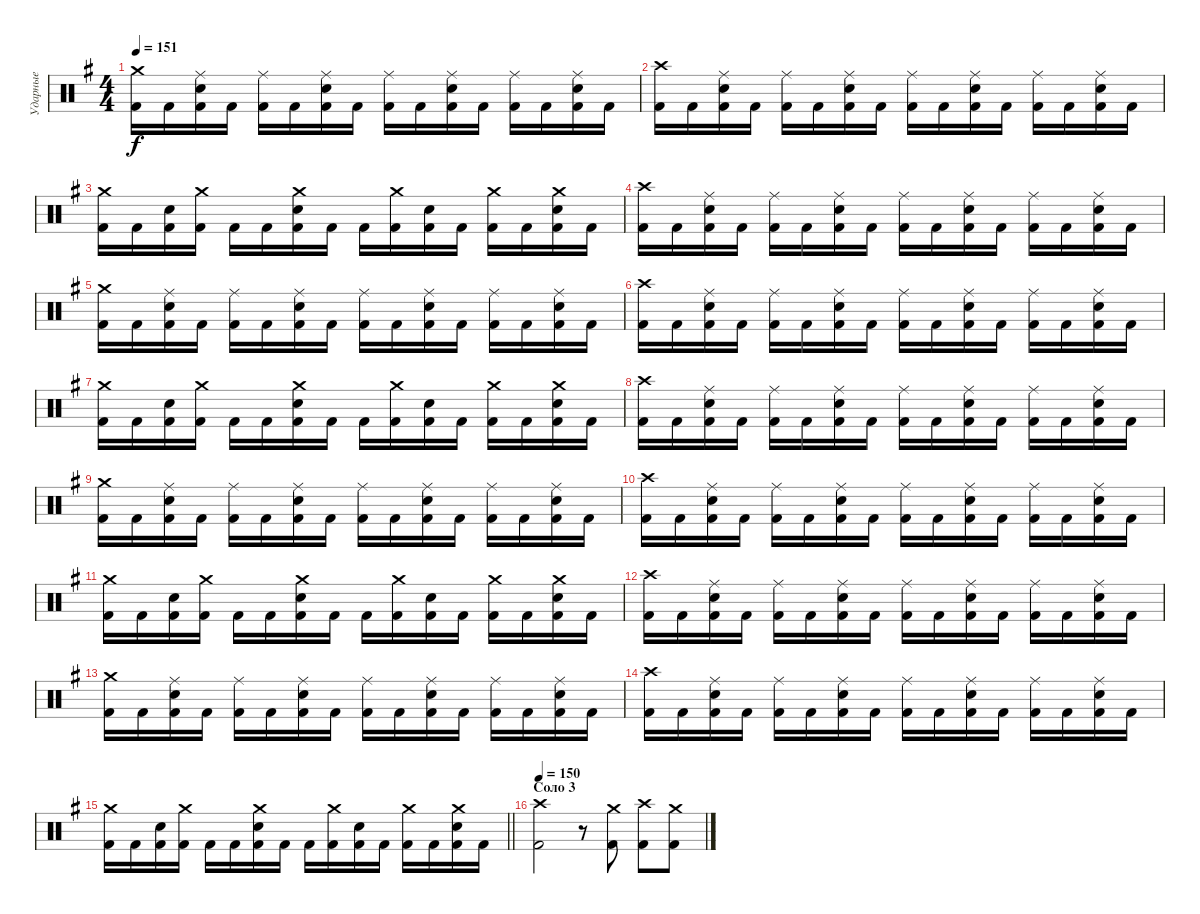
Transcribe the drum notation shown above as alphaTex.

\track ("Ударные" "Ударные") {instrument percussion}
\staff {score}
\articulation defaults
\ts (4 4)
\tempo 151
\clef neutral
\ks eminor
("Crash medium (hit)" "Kick (hit) 2").16{dy f} "Kick (hit) 2".16 ("Ride (middle)" "Electric Snare (hit)" "Kick (hit) 2").16 "Kick (hit) 2".16 ("Ride (middle)" "Kick (hit) 2").16 "Kick (hit) 2".16 ("Ride (middle)" "Electric Snare (hit)" "Kick (hit) 2").16 "Kick (hit) 2".16 ("Ride (middle)" "Kick (hit) 2").16 "Kick (hit) 2".16 ("Ride (middle)" "Electric Snare (hit)" "Kick (hit) 2").16 "Kick (hit) 2".16 ("Ride (middle)" "Kick (hit) 2").16 "Kick (hit) 2".16 ("Ride (middle)" "Electric Snare (hit)" "Kick (hit) 2").16 "Kick (hit) 2".16 |
("Crash high (hit)" "Kick (hit) 2").16 "Kick (hit) 2".16 ("Ride (middle)" "Electric Snare (hit)" "Kick (hit) 2").16 "Kick (hit) 2".16 ("Ride (middle)" "Kick (hit) 2").16 "Kick (hit) 2".16 ("Ride (middle)" "Electric Snare (hit)" "Kick (hit) 2").16 "Kick (hit) 2".16 ("Ride (middle)" "Kick (hit) 2").16 "Kick (hit) 2".16 ("Ride (middle)" "Electric Snare (hit)" "Kick (hit) 2").16 "Kick (hit) 2".16 ("Ride (middle)" "Kick (hit) 2").16 "Kick (hit) 2".16 ("Ride (middle)" "Electric Snare (hit)" "Kick (hit) 2").16 "Kick (hit) 2".16 |
("Crash medium (hit)" "Kick (hit) 2").16 "Kick (hit) 2".16 ("Electric Snare (hit)" "Kick (hit) 2").16 ("Crash medium (hit)" "Kick (hit) 2").16 "Kick (hit) 2".16 "Kick (hit) 2".16 ("Crash medium (hit)" "Electric Snare (hit)" "Kick (hit) 2").16 "Kick (hit) 2".16 "Kick (hit) 2".16 ("Crash medium (hit)" "Kick (hit) 2").16 ("Electric Snare (hit)" "Kick (hit) 2").16 "Kick (hit) 2".16 ("Crash medium (hit)" "Kick (hit) 2").16 "Kick (hit) 2".16 ("Crash medium (hit)" "Electric Snare (hit)" "Kick (hit) 2").16 "Kick (hit) 2".16 |
("Crash high (hit)" "Kick (hit) 2").16 "Kick (hit) 2".16 ("Ride (middle)" "Electric Snare (hit)" "Kick (hit) 2").16 "Kick (hit) 2".16 ("Ride (middle)" "Kick (hit) 2").16 "Kick (hit) 2".16 ("Ride (middle)" "Electric Snare (hit)" "Kick (hit) 2").16 "Kick (hit) 2".16 ("Ride (middle)" "Kick (hit) 2").16 "Kick (hit) 2".16 ("Ride (middle)" "Electric Snare (hit)" "Kick (hit) 2").16 "Kick (hit) 2".16 ("Ride (middle)" "Kick (hit) 2").16 "Kick (hit) 2".16 ("Ride (middle)" "Electric Snare (hit)" "Kick (hit) 2").16 "Kick (hit) 2".16 |
("Crash medium (hit)" "Kick (hit) 2").16 "Kick (hit) 2".16 ("Ride (middle)" "Electric Snare (hit)" "Kick (hit) 2").16 "Kick (hit) 2".16 ("Ride (middle)" "Kick (hit) 2").16 "Kick (hit) 2".16 ("Ride (middle)" "Electric Snare (hit)" "Kick (hit) 2").16 "Kick (hit) 2".16 ("Ride (middle)" "Kick (hit) 2").16 "Kick (hit) 2".16 ("Ride (middle)" "Electric Snare (hit)" "Kick (hit) 2").16 "Kick (hit) 2".16 ("Ride (middle)" "Kick (hit) 2").16 "Kick (hit) 2".16 ("Ride (middle)" "Electric Snare (hit)" "Kick (hit) 2").16 "Kick (hit) 2".16 |
("Crash high (hit)" "Kick (hit) 2").16 "Kick (hit) 2".16 ("Ride (middle)" "Electric Snare (hit)" "Kick (hit) 2").16 "Kick (hit) 2".16 ("Ride (middle)" "Kick (hit) 2").16 "Kick (hit) 2".16 ("Ride (middle)" "Electric Snare (hit)" "Kick (hit) 2").16 "Kick (hit) 2".16 ("Ride (middle)" "Kick (hit) 2").16 "Kick (hit) 2".16 ("Ride (middle)" "Electric Snare (hit)" "Kick (hit) 2").16 "Kick (hit) 2".16 ("Ride (middle)" "Kick (hit) 2").16 "Kick (hit) 2".16 ("Ride (middle)" "Electric Snare (hit)" "Kick (hit) 2").16 "Kick (hit) 2".16 |
("Crash medium (hit)" "Kick (hit) 2").16 "Kick (hit) 2".16 ("Electric Snare (hit)" "Kick (hit) 2").16 ("Crash medium (hit)" "Kick (hit) 2").16 "Kick (hit) 2".16 "Kick (hit) 2".16 ("Crash medium (hit)" "Electric Snare (hit)" "Kick (hit) 2").16 "Kick (hit) 2".16 "Kick (hit) 2".16 ("Crash medium (hit)" "Kick (hit) 2").16 ("Electric Snare (hit)" "Kick (hit) 2").16 "Kick (hit) 2".16 ("Crash medium (hit)" "Kick (hit) 2").16 "Kick (hit) 2".16 ("Crash medium (hit)" "Electric Snare (hit)" "Kick (hit) 2").16 "Kick (hit) 2".16 |
("Crash high (hit)" "Kick (hit) 2").16 "Kick (hit) 2".16 ("Ride (middle)" "Electric Snare (hit)" "Kick (hit) 2").16 "Kick (hit) 2".16 ("Ride (middle)" "Kick (hit) 2").16 "Kick (hit) 2".16 ("Ride (middle)" "Electric Snare (hit)" "Kick (hit) 2").16 "Kick (hit) 2".16 ("Ride (middle)" "Kick (hit) 2").16 "Kick (hit) 2".16 ("Ride (middle)" "Electric Snare (hit)" "Kick (hit) 2").16 "Kick (hit) 2".16 ("Ride (middle)" "Kick (hit) 2").16 "Kick (hit) 2".16 ("Ride (middle)" "Electric Snare (hit)" "Kick (hit) 2").16 "Kick (hit) 2".16 |
("Crash medium (hit)" "Kick (hit) 2").16 "Kick (hit) 2".16 ("Ride (middle)" "Electric Snare (hit)" "Kick (hit) 2").16 "Kick (hit) 2".16 ("Ride (middle)" "Kick (hit) 2").16 "Kick (hit) 2".16 ("Ride (middle)" "Electric Snare (hit)" "Kick (hit) 2").16 "Kick (hit) 2".16 ("Ride (middle)" "Kick (hit) 2").16 "Kick (hit) 2".16 ("Ride (middle)" "Electric Snare (hit)" "Kick (hit) 2").16 "Kick (hit) 2".16 ("Ride (middle)" "Kick (hit) 2").16 "Kick (hit) 2".16 ("Ride (middle)" "Electric Snare (hit)" "Kick (hit) 2").16 "Kick (hit) 2".16 |
("Crash high (hit)" "Kick (hit) 2").16 "Kick (hit) 2".16 ("Ride (middle)" "Electric Snare (hit)" "Kick (hit) 2").16 "Kick (hit) 2".16 ("Ride (middle)" "Kick (hit) 2").16 "Kick (hit) 2".16 ("Ride (middle)" "Electric Snare (hit)" "Kick (hit) 2").16 "Kick (hit) 2".16 ("Ride (middle)" "Kick (hit) 2").16 "Kick (hit) 2".16 ("Ride (middle)" "Electric Snare (hit)" "Kick (hit) 2").16 "Kick (hit) 2".16 ("Ride (middle)" "Kick (hit) 2").16 "Kick (hit) 2".16 ("Ride (middle)" "Electric Snare (hit)" "Kick (hit) 2").16 "Kick (hit) 2".16 |
("Crash medium (hit)" "Kick (hit) 2").16 "Kick (hit) 2".16 ("Electric Snare (hit)" "Kick (hit) 2").16 ("Crash medium (hit)" "Kick (hit) 2").16 "Kick (hit) 2".16 "Kick (hit) 2".16 ("Crash medium (hit)" "Electric Snare (hit)" "Kick (hit) 2").16 "Kick (hit) 2".16 "Kick (hit) 2".16 ("Crash medium (hit)" "Kick (hit) 2").16 ("Electric Snare (hit)" "Kick (hit) 2").16 "Kick (hit) 2".16 ("Crash medium (hit)" "Kick (hit) 2").16 "Kick (hit) 2".16 ("Crash medium (hit)" "Electric Snare (hit)" "Kick (hit) 2").16 "Kick (hit) 2".16 |
("Crash high (hit)" "Kick (hit) 2").16 "Kick (hit) 2".16 ("Ride (middle)" "Electric Snare (hit)" "Kick (hit) 2").16 "Kick (hit) 2".16 ("Ride (middle)" "Kick (hit) 2").16 "Kick (hit) 2".16 ("Ride (middle)" "Electric Snare (hit)" "Kick (hit) 2").16 "Kick (hit) 2".16 ("Ride (middle)" "Kick (hit) 2").16 "Kick (hit) 2".16 ("Ride (middle)" "Electric Snare (hit)" "Kick (hit) 2").16 "Kick (hit) 2".16 ("Ride (middle)" "Kick (hit) 2").16 "Kick (hit) 2".16 ("Ride (middle)" "Electric Snare (hit)" "Kick (hit) 2").16 "Kick (hit) 2".16 |
("Crash medium (hit)" "Kick (hit) 2").16 "Kick (hit) 2".16 ("Ride (middle)" "Electric Snare (hit)" "Kick (hit) 2").16 "Kick (hit) 2".16 ("Ride (middle)" "Kick (hit) 2").16 "Kick (hit) 2".16 ("Ride (middle)" "Electric Snare (hit)" "Kick (hit) 2").16 "Kick (hit) 2".16 ("Ride (middle)" "Kick (hit) 2").16 "Kick (hit) 2".16 ("Ride (middle)" "Electric Snare (hit)" "Kick (hit) 2").16 "Kick (hit) 2".16 ("Ride (middle)" "Kick (hit) 2").16 "Kick (hit) 2".16 ("Ride (middle)" "Electric Snare (hit)" "Kick (hit) 2").16 "Kick (hit) 2".16 |
("Crash high (hit)" "Kick (hit) 2").16 "Kick (hit) 2".16 ("Ride (middle)" "Electric Snare (hit)" "Kick (hit) 2").16 "Kick (hit) 2".16 ("Ride (middle)" "Kick (hit) 2").16 "Kick (hit) 2".16 ("Ride (middle)" "Electric Snare (hit)" "Kick (hit) 2").16 "Kick (hit) 2".16 ("Ride (middle)" "Kick (hit) 2").16 "Kick (hit) 2".16 ("Ride (middle)" "Electric Snare (hit)" "Kick (hit) 2").16 "Kick (hit) 2".16 ("Ride (middle)" "Kick (hit) 2").16 "Kick (hit) 2".16 ("Ride (middle)" "Electric Snare (hit)" "Kick (hit) 2").16 "Kick (hit) 2".16 |
\barLineRight lightlight
("Crash medium (hit)" "Kick (hit) 2").16 "Kick (hit) 2".16 ("Electric Snare (hit)" "Kick (hit) 2").16 ("Crash medium (hit)" "Kick (hit) 2").16 "Kick (hit) 2".16 "Kick (hit) 2".16 ("Crash medium (hit)" "Electric Snare (hit)" "Kick (hit) 2").16 "Kick (hit) 2".16 "Kick (hit) 2".16 ("Crash medium (hit)" "Kick (hit) 2").16 ("Electric Snare (hit)" "Kick (hit) 2").16 "Kick (hit) 2".16 ("Crash medium (hit)" "Kick (hit) 2").16 "Kick (hit) 2".16 ("Crash medium (hit)" "Electric Snare (hit)" "Kick (hit) 2").16 "Kick (hit) 2".16 |
\section ("" "Соло 3")
\tempo 150
("Crash high (hit)" "Kick (hit) 2").2 r.8 ("Crash medium (hit)" "Kick (hit) 2").8 ("Crash high (hit)" "Kick (hit) 2").8 ("Crash medium (hit)" "Kick (hit) 2").8
